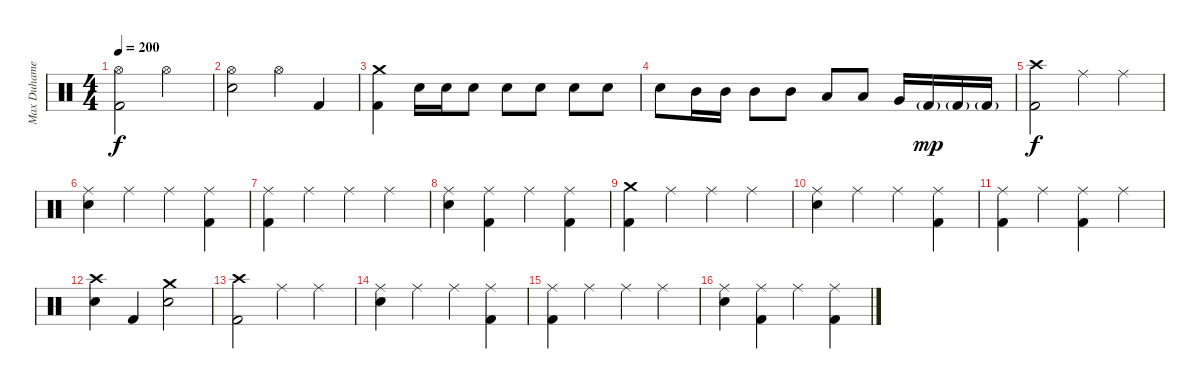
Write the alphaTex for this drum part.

\track ("Max Duhamel" "Max Duhame") {instrument percussion}
\staff {score}
\articulation defaults
\ts (4 4)
\tempo 200
\clef neutral
\ks c
("Hi-Hat (open)" "Kick (hit) 2").2{dy f} "Hi-Hat (open)".2 |
("Hi-Hat (open)" "Electric Snare (hit)").2 "Hi-Hat (open)".4 "Kick (hit) 2".4 |
("Crash medium (hit)" "Kick (hit) 2").4 "Electric Snare (hit)".16 "Electric Snare (hit)".16 "Electric Snare (hit)".8 "Electric Snare (hit)".8 "Electric Snare (hit)".8 "Electric Snare (hit)".8 "Electric Snare (hit)".8 |
"Electric Snare (hit)".8 "Mid Tom (hit)".16 "Mid Tom (hit)".16 "Mid Tom (hit)".8 "Mid Tom (hit)".8 "Low Tom (hit)".8 "Low Tom (hit)".8 "Very Low Tom (hit)".16 "Kick (hit) 2"{g}.16{dy mp} "Kick (hit) 2"{g}.16 "Kick (hit) 2"{g}.16 |
\section ("" "")
("Crash high (hit)" "Kick (hit) 2").2{dy f} "Ride (middle)".4 "Ride (middle)".4 |
("Ride (middle)" "Electric Snare (hit)").4 "Ride (middle)".4 "Ride (middle)".4 ("Ride (middle)" "Kick (hit) 2").4 |
("Ride (middle)" "Kick (hit) 2").4 "Ride (middle)".4 "Ride (middle)".4 "Ride (middle)".4 |
("Ride (middle)" "Electric Snare (hit)").4 ("Ride (middle)" "Kick (hit) 2").4 "Ride (middle)".4 ("Ride (middle)" "Kick (hit) 2").4 |
("Crash medium (hit)" "Kick (hit) 2").4 "Ride (middle)".4 "Ride (middle)".4 "Ride (middle)".4 |
("Ride (middle)" "Electric Snare (hit)").4 "Ride (middle)".4 "Ride (middle)".4 ("Ride (middle)" "Kick (hit) 2").4 |
("Ride (middle)" "Kick (hit) 2").4 "Ride (middle)".4 ("Ride (middle)" "Kick (hit) 2").4 "Ride (middle)".4 |
("Crash high (hit)" "Electric Snare (hit)").4 "Kick (hit) 2".4 ("Crash medium (hit)" "Electric Snare (hit)").2 |
\section ("" "")
("Crash high (hit)" "Kick (hit) 2").2 "Ride (middle)".4 "Ride (middle)".4 |
("Ride (middle)" "Electric Snare (hit)").4 "Ride (middle)".4 "Ride (middle)".4 ("Ride (middle)" "Kick (hit) 2").4 |
("Ride (middle)" "Kick (hit) 2").4 "Ride (middle)".4 "Ride (middle)".4 "Ride (middle)".4 |
("Ride (middle)" "Electric Snare (hit)").4 ("Ride (middle)" "Kick (hit) 2").4 "Ride (middle)".4 ("Ride (middle)" "Kick (hit) 2").4
